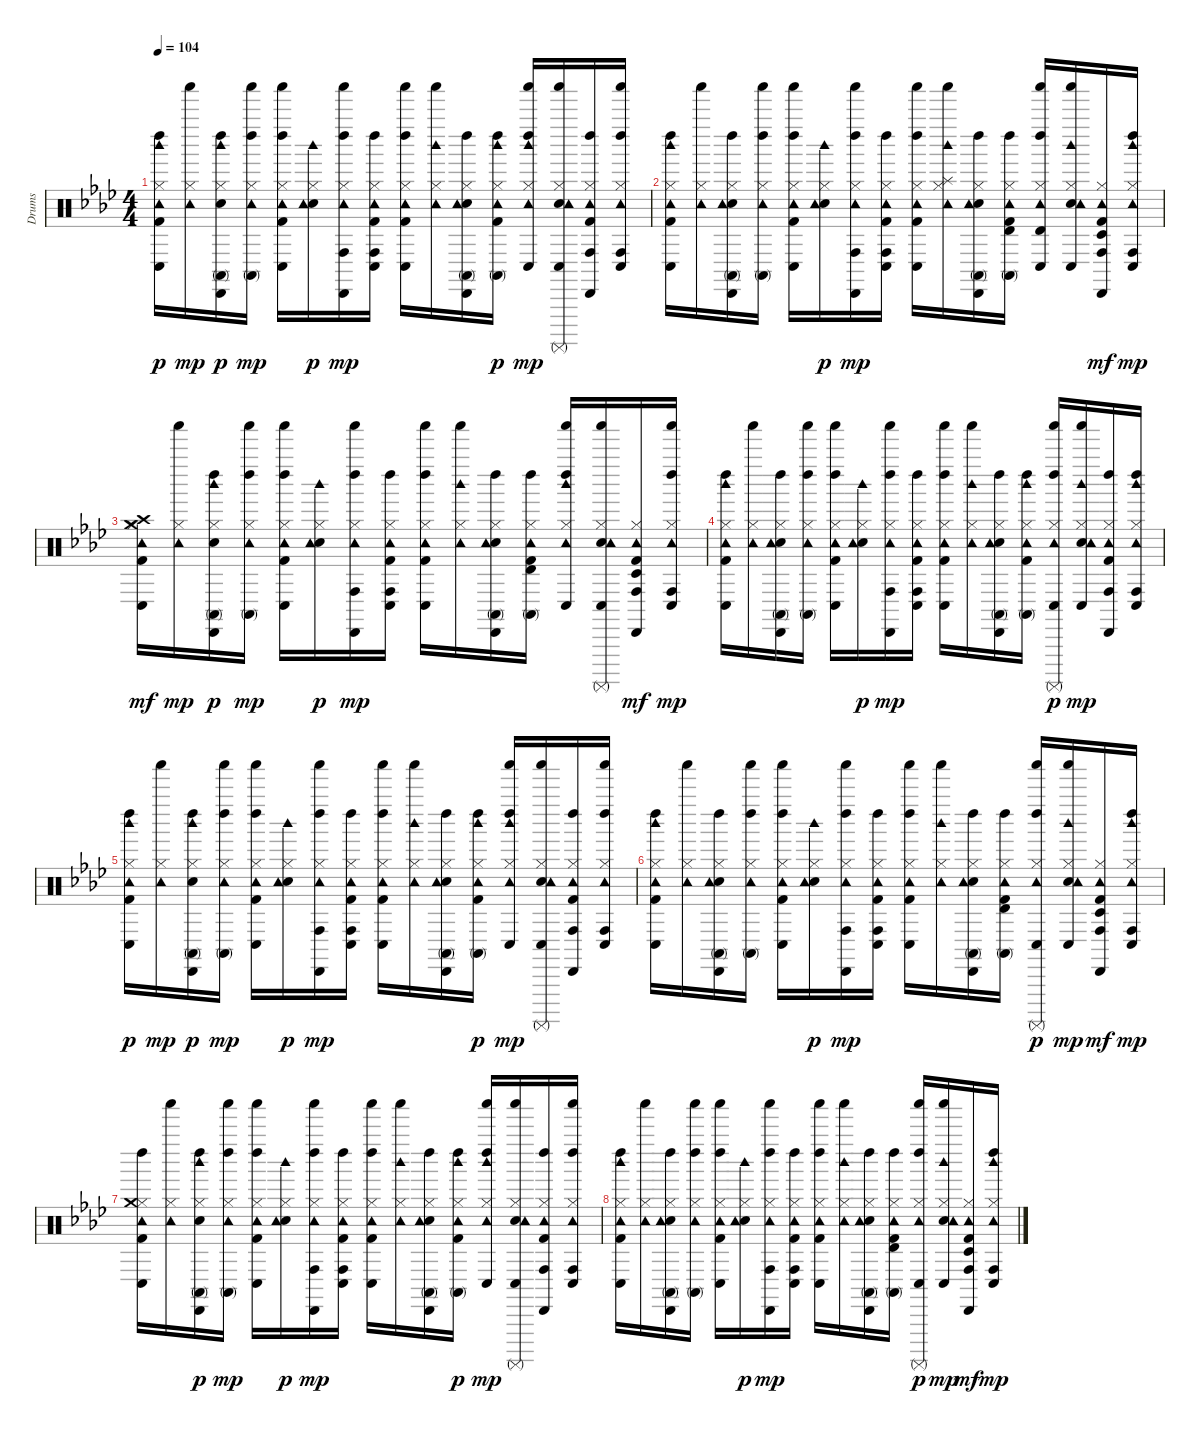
\track ("Drums" "Drums") {instrument percussion}
\staff {score}
\articulation defaults
\ts (4 4)
\tempo 104
\clef neutral
\ks ab
("Kick (hit) 2" "Hi-Hat (closed)" "Tambourine (hit)" "Conga low (hit)" "Left Maraca (hit)" "Woodblock high (hit)").16{dy p} ("Hi-Hat (closed)" "Tambourine (hit)" "Shaker (hit)").16{dy mp} ("Hand Clap (hit)" "Hi-Hat (closed)" "Conga high (mute)" "Cabasa (hit)" "Left Maraca (hit)" "Woodblock high (hit)").16{dy p} ("Hi-Hat (closed)" "Tambourine (hit)" "Conga high (mute)" "Left Maraca (hit)" "Shaker (hit)").16{dy mp} ("Kick (hit) 2" "Hi-Hat (closed)" "Tambourine (hit)" "Conga low (hit)" "Left Maraca (hit)" "Shaker (hit)").16 ("Hand Clap (hit)" "Hi-Hat (closed)" "Tambourine (hit)" "Woodblock high (hit)").16{dy p} ("Hi-Hat (closed)" "Tambourine (hit)" "Conga high (hit)" "Cabasa (hit)" "Left Maraca (hit)" "Shaker (hit)").16{dy mp} ("Kick (hit) 2" "Hi-Hat (closed)" "Tambourine (hit)" "Conga high (hit)" "Conga low (hit)" "Left Maraca (hit)").16 ("Kick (hit) 2" "Hi-Hat (closed)" "Tambourine (hit)" "Conga low (hit)" "Left Maraca (hit)" "Shaker (hit)").16 ("Hi-Hat (closed)" "Tambourine (hit)" "Woodblock high (hit)" "Shaker (hit)").16 ("Hand Clap (hit)" "Hi-Hat (closed)" "Tambourine (hit)" "Conga high (mute)" "Cabasa (hit)" "Left Maraca (hit)").16 ("Kick (hit) 2" "Hi-Hat (closed)" "Tambourine (hit)" "Conga high (mute)" "Left Maraca (hit)" "Woodblock high (hit)").16{dy p} ("Hi-Hat (closed)" "Tambourine (hit)" "Conga low (hit)" "Left Maraca (hit)" "Woodblock high (hit)" "Shaker (hit)").16{dy mp} ("Hand Clap (hit)" "Hi-Hat (closed)" "Tambourine (hit)" "Conga low (hit)" "Shaker (hit)" "Surdo (mute)").16 ("Kick (hit) 2" "Hi-Hat (closed)" "Tambourine (hit)" "Conga high (hit)" "Cabasa (hit)" "Left Maraca (hit)").16 ("Hi-Hat (closed)" "Tambourine (hit)" "Conga high (hit)" "Conga low (hit)" "Left Maraca (hit)" "Shaker (hit)").16 |
("Kick (hit) 2" "Hi-Hat (closed)" "Tambourine (hit)" "Conga low (hit)" "Left Maraca (hit)" "Woodblock high (hit)").16 ("Hi-Hat (closed)" "Tambourine (hit)" "Shaker (hit)").16 ("Hand Clap (hit)" "Hi-Hat (closed)" "Tambourine (hit)" "Conga high (mute)" "Cabasa (hit)" "Left Maraca (hit)").16 ("Hi-Hat (closed)" "Tambourine (hit)" "Conga high (mute)" "Left Maraca (hit)" "Shaker (hit)").16 ("Kick (hit) 2" "Hi-Hat (closed)" "Tambourine (hit)" "Conga low (hit)" "Left Maraca (hit)" "Shaker (hit)").16 ("Hand Clap (hit)" "Hi-Hat (closed)" "Tambourine (hit)" "Woodblock high (hit)").16{dy p} ("Hi-Hat (closed)" "Tambourine (hit)" "Conga high (hit)" "Cabasa (hit)" "Left Maraca (hit)" "Shaker (hit)").16{dy mp} ("Kick (hit) 2" "Hi-Hat (closed)" "Tambourine (hit)" "Conga high (hit)" "Conga low (hit)" "Left Maraca (hit)").16 ("Kick (hit) 2" "Hi-Hat (closed)" "Tambourine (hit)" "Conga low (hit)" "Left Maraca (hit)" "Shaker (hit)").16 ("Hi-Hat (closed)" "Tambourine (hit)" "Splash (hit)" "Woodblock high (hit)" "Shaker (hit)").16 ("Hand Clap (hit)" "Hi-Hat (closed)" "Tambourine (hit)" "Conga high (mute)" "Cabasa (hit)" "Left Maraca (hit)").16 ("Kick (hit) 2" "Hi-Hat (closed)" "Tambourine (hit)" "Conga high (mute)" "Timbale high (hit)" "Left Maraca (hit)").16 ("Hi-Hat (closed)" "Tambourine (hit)" "Conga low (hit)" "Timbale high (hit)" "Left Maraca (hit)" "Shaker (hit)").16 ("Hand Clap (hit)" "Hi-Hat (closed)" "Tambourine (hit)" "Conga low (hit)" "Woodblock high (hit)" "Shaker (hit)").16 ("Kick (hit) 2" "Hi-Hat (closed)" "Tambourine (hit)" "Conga high (hit)" "Timbale low (hit)" "Cabasa (hit)").16{dy mf} ("Hi-Hat (closed)" "Tambourine (hit)" "Conga high (hit)" "Conga low (hit)" "Left Maraca (hit)" "Woodblock high (hit)").16{dy mp} |
("Kick (hit) 2" "Hi-Hat (closed)" "Crash high (hit)" "Tambourine (hit)" "Crash medium (hit)" "Conga low (hit)").16{dy mf} ("Hi-Hat (closed)" "Tambourine (hit)" "Shaker (hit)").16{dy mp} ("Hand Clap (hit)" "Hi-Hat (closed)" "Conga high (mute)" "Cabasa (hit)" "Left Maraca (hit)" "Woodblock high (hit)").16{dy p} ("Hi-Hat (closed)" "Tambourine (hit)" "Conga high (mute)" "Left Maraca (hit)" "Shaker (hit)").16{dy mp} ("Kick (hit) 2" "Hi-Hat (closed)" "Tambourine (hit)" "Conga low (hit)" "Left Maraca (hit)" "Shaker (hit)").16 ("Hand Clap (hit)" "Hi-Hat (closed)" "Tambourine (hit)" "Woodblock high (hit)").16{dy p} ("Hi-Hat (closed)" "Tambourine (hit)" "Conga high (hit)" "Cabasa (hit)" "Left Maraca (hit)" "Shaker (hit)").16{dy mp} ("Kick (hit) 2" "Hi-Hat (closed)" "Tambourine (hit)" "Conga high (hit)" "Conga low (hit)" "Left Maraca (hit)").16 ("Kick (hit) 2" "Hi-Hat (closed)" "Tambourine (hit)" "Conga low (hit)" "Left Maraca (hit)" "Shaker (hit)").16 ("Hi-Hat (closed)" "Tambourine (hit)" "Woodblock high (hit)" "Shaker (hit)").16 ("Hand Clap (hit)" "Hi-Hat (closed)" "Tambourine (hit)" "Conga high (mute)" "Cabasa (hit)" "Left Maraca (hit)").16 ("Kick (hit) 2" "Hi-Hat (closed)" "Tambourine (hit)" "Conga high (mute)" "Timbale high (hit)" "Left Maraca (hit)").16 ("Hi-Hat (closed)" "Tambourine (hit)" "Conga low (hit)" "Left Maraca (hit)" "Woodblock high (hit)" "Shaker (hit)").16 ("Hand Clap (hit)" "Hi-Hat (closed)" "Tambourine (hit)" "Conga low (hit)" "Shaker (hit)" "Surdo (mute)").16 ("Kick (hit) 2" "Hi-Hat (closed)" "Tambourine (hit)" "Conga high (hit)" "Timbale low (hit)" "Cabasa (hit)").16{dy mf} ("Hi-Hat (closed)" "Tambourine (hit)" "Conga high (hit)" "Conga low (hit)" "Left Maraca (hit)" "Shaker (hit)").16{dy mp} |
("Kick (hit) 2" "Hi-Hat (closed)" "Tambourine (hit)" "Conga low (hit)" "Left Maraca (hit)" "Woodblock high (hit)").16 ("Hi-Hat (closed)" "Tambourine (hit)" "Shaker (hit)").16 ("Hand Clap (hit)" "Hi-Hat (closed)" "Tambourine (hit)" "Conga high (mute)" "Cabasa (hit)" "Left Maraca (hit)").16 ("Hi-Hat (closed)" "Tambourine (hit)" "Conga high (mute)" "Left Maraca (hit)" "Shaker (hit)").16 ("Kick (hit) 2" "Hi-Hat (closed)" "Tambourine (hit)" "Conga low (hit)" "Left Maraca (hit)" "Shaker (hit)").16 ("Hand Clap (hit)" "Hi-Hat (closed)" "Tambourine (hit)" "Woodblock high (hit)").16{dy p} ("Hi-Hat (closed)" "Tambourine (hit)" "Conga high (hit)" "Cabasa (hit)" "Left Maraca (hit)" "Shaker (hit)").16{dy mp} ("Kick (hit) 2" "Hi-Hat (closed)" "Tambourine (hit)" "Conga high (hit)" "Conga low (hit)" "Left Maraca (hit)").16 ("Kick (hit) 2" "Hi-Hat (closed)" "Tambourine (hit)" "Conga low (hit)" "Left Maraca (hit)" "Shaker (hit)").16 ("Hi-Hat (closed)" "Tambourine (hit)" "Woodblock high (hit)" "Shaker (hit)").16 ("Hand Clap (hit)" "Hi-Hat (closed)" "Tambourine (hit)" "Conga high (mute)" "Cabasa (hit)" "Left Maraca (hit)").16 ("Kick (hit) 2" "Hi-Hat (closed)" "Tambourine (hit)" "Conga high (mute)" "Left Maraca (hit)" "Woodblock high (hit)").16 ("Hi-Hat (closed)" "Tambourine (hit)" "Conga low (hit)" "Left Maraca (hit)" "Shaker (hit)" "Surdo (mute)").16{dy p} ("Hand Clap (hit)" "Hi-Hat (closed)" "Tambourine (hit)" "Conga low (hit)" "Woodblock high (hit)" "Shaker (hit)").16{dy mp} ("Kick (hit) 2" "Hi-Hat (closed)" "Tambourine (hit)" "Conga high (hit)" "Cabasa (hit)" "Left Maraca (hit)").16 ("Hi-Hat (closed)" "Tambourine (hit)" "Conga high (hit)" "Conga low (hit)" "Left Maraca (hit)" "Woodblock high (hit)").16 |
("Kick (hit) 2" "Hi-Hat (closed)" "Tambourine (hit)" "Conga low (hit)" "Left Maraca (hit)" "Woodblock high (hit)").16{dy p} ("Hi-Hat (closed)" "Tambourine (hit)" "Shaker (hit)").16{dy mp} ("Hand Clap (hit)" "Hi-Hat (closed)" "Conga high (mute)" "Cabasa (hit)" "Left Maraca (hit)" "Woodblock high (hit)").16{dy p} ("Hi-Hat (closed)" "Tambourine (hit)" "Conga high (mute)" "Left Maraca (hit)" "Shaker (hit)").16{dy mp} ("Kick (hit) 2" "Hi-Hat (closed)" "Tambourine (hit)" "Conga low (hit)" "Left Maraca (hit)" "Shaker (hit)").16 ("Hand Clap (hit)" "Hi-Hat (closed)" "Tambourine (hit)" "Woodblock high (hit)").16{dy p} ("Hi-Hat (closed)" "Tambourine (hit)" "Conga high (hit)" "Cabasa (hit)" "Left Maraca (hit)" "Shaker (hit)").16{dy mp} ("Kick (hit) 2" "Hi-Hat (closed)" "Tambourine (hit)" "Conga high (hit)" "Conga low (hit)" "Left Maraca (hit)").16 ("Kick (hit) 2" "Hi-Hat (closed)" "Tambourine (hit)" "Conga low (hit)" "Left Maraca (hit)" "Shaker (hit)").16 ("Hi-Hat (closed)" "Tambourine (hit)" "Woodblock high (hit)" "Shaker (hit)").16 ("Hand Clap (hit)" "Hi-Hat (closed)" "Tambourine (hit)" "Conga high (mute)" "Cabasa (hit)" "Left Maraca (hit)").16 ("Kick (hit) 2" "Hi-Hat (closed)" "Tambourine (hit)" "Conga high (mute)" "Left Maraca (hit)" "Woodblock high (hit)").16{dy p} ("Hi-Hat (closed)" "Tambourine (hit)" "Conga low (hit)" "Left Maraca (hit)" "Woodblock high (hit)" "Shaker (hit)").16{dy mp} ("Hand Clap (hit)" "Hi-Hat (closed)" "Tambourine (hit)" "Conga low (hit)" "Shaker (hit)" "Surdo (mute)").16 ("Kick (hit) 2" "Hi-Hat (closed)" "Tambourine (hit)" "Conga high (hit)" "Cabasa (hit)" "Left Maraca (hit)").16 ("Hi-Hat (closed)" "Tambourine (hit)" "Conga high (hit)" "Conga low (hit)" "Left Maraca (hit)" "Shaker (hit)").16 |
("Kick (hit) 2" "Hi-Hat (closed)" "Tambourine (hit)" "Conga low (hit)" "Left Maraca (hit)" "Woodblock high (hit)").16 ("Hi-Hat (closed)" "Tambourine (hit)" "Shaker (hit)").16 ("Hand Clap (hit)" "Hi-Hat (closed)" "Tambourine (hit)" "Conga high (mute)" "Cabasa (hit)" "Left Maraca (hit)").16 ("Hi-Hat (closed)" "Tambourine (hit)" "Conga high (mute)" "Left Maraca (hit)" "Shaker (hit)").16 ("Kick (hit) 2" "Hi-Hat (closed)" "Tambourine (hit)" "Conga low (hit)" "Left Maraca (hit)" "Shaker (hit)").16 ("Hand Clap (hit)" "Hi-Hat (closed)" "Tambourine (hit)" "Woodblock high (hit)").16{dy p} ("Hi-Hat (closed)" "Tambourine (hit)" "Conga high (hit)" "Cabasa (hit)" "Left Maraca (hit)" "Shaker (hit)").16{dy mp} ("Kick (hit) 2" "Hi-Hat (closed)" "Tambourine (hit)" "Conga high (hit)" "Conga low (hit)" "Left Maraca (hit)").16 ("Kick (hit) 2" "Hi-Hat (closed)" "Tambourine (hit)" "Conga low (hit)" "Left Maraca (hit)" "Shaker (hit)").16 ("Hi-Hat (closed)" "Tambourine (hit)" "Woodblock high (hit)" "Shaker (hit)").16 ("Hand Clap (hit)" "Hi-Hat (closed)" "Tambourine (hit)" "Conga high (mute)" "Cabasa (hit)" "Left Maraca (hit)").16 ("Kick (hit) 2" "Hi-Hat (closed)" "Tambourine (hit)" "Conga high (mute)" "Timbale high (hit)" "Left Maraca (hit)").16 ("Hi-Hat (closed)" "Tambourine (hit)" "Conga low (hit)" "Left Maraca (hit)" "Shaker (hit)" "Surdo (mute)").16{dy p} ("Hand Clap (hit)" "Hi-Hat (closed)" "Tambourine (hit)" "Conga low (hit)" "Woodblock high (hit)" "Shaker (hit)").16{dy mp} ("Kick (hit) 2" "Hi-Hat (closed)" "Tambourine (hit)" "Conga high (hit)" "Timbale low (hit)" "Cabasa (hit)").16{dy mf} ("Hi-Hat (closed)" "Tambourine (hit)" "Conga high (hit)" "Conga low (hit)" "Left Maraca (hit)" "Woodblock high (hit)").16{dy mp} |
("Kick (hit) 2" "Hi-Hat (closed)" "Tambourine (hit)" "Crash medium (hit)" "Conga low (hit)" "Left Maraca (hit)").16 ("Hi-Hat (closed)" "Tambourine (hit)" "Shaker (hit)").16 ("Hand Clap (hit)" "Hi-Hat (closed)" "Conga high (mute)" "Cabasa (hit)" "Left Maraca (hit)" "Woodblock high (hit)").16{dy p} ("Hi-Hat (closed)" "Tambourine (hit)" "Conga high (mute)" "Left Maraca (hit)" "Shaker (hit)").16{dy mp} ("Kick (hit) 2" "Hi-Hat (closed)" "Tambourine (hit)" "Conga low (hit)" "Left Maraca (hit)" "Shaker (hit)").16 ("Hand Clap (hit)" "Hi-Hat (closed)" "Tambourine (hit)" "Woodblock high (hit)").16{dy p} ("Hi-Hat (closed)" "Tambourine (hit)" "Conga high (hit)" "Cabasa (hit)" "Left Maraca (hit)" "Shaker (hit)").16{dy mp} ("Kick (hit) 2" "Hi-Hat (closed)" "Tambourine (hit)" "Conga high (hit)" "Conga low (hit)" "Left Maraca (hit)").16 ("Kick (hit) 2" "Hi-Hat (closed)" "Tambourine (hit)" "Conga low (hit)" "Left Maraca (hit)" "Shaker (hit)").16 ("Hi-Hat (closed)" "Tambourine (hit)" "Woodblock high (hit)" "Shaker (hit)").16 ("Hand Clap (hit)" "Hi-Hat (closed)" "Tambourine (hit)" "Conga high (mute)" "Cabasa (hit)" "Left Maraca (hit)").16 ("Kick (hit) 2" "Hi-Hat (closed)" "Tambourine (hit)" "Conga high (mute)" "Left Maraca (hit)" "Woodblock high (hit)").16{dy p} ("Hi-Hat (closed)" "Tambourine (hit)" "Conga low (hit)" "Left Maraca (hit)" "Woodblock high (hit)" "Shaker (hit)").16{dy mp} ("Hand Clap (hit)" "Hi-Hat (closed)" "Tambourine (hit)" "Conga low (hit)" "Shaker (hit)" "Surdo (mute)").16 ("Kick (hit) 2" "Hi-Hat (closed)" "Tambourine (hit)" "Conga high (hit)" "Cabasa (hit)" "Left Maraca (hit)").16 ("Hi-Hat (closed)" "Tambourine (hit)" "Conga high (hit)" "Conga low (hit)" "Left Maraca (hit)" "Shaker (hit)").16 |
("Kick (hit) 2" "Hi-Hat (closed)" "Tambourine (hit)" "Conga low (hit)" "Left Maraca (hit)" "Woodblock high (hit)").16 ("Hi-Hat (closed)" "Tambourine (hit)" "Shaker (hit)").16 ("Hand Clap (hit)" "Hi-Hat (closed)" "Tambourine (hit)" "Conga high (mute)" "Cabasa (hit)" "Left Maraca (hit)").16 ("Hi-Hat (closed)" "Tambourine (hit)" "Conga high (mute)" "Left Maraca (hit)" "Shaker (hit)").16 ("Kick (hit) 2" "Hi-Hat (closed)" "Tambourine (hit)" "Conga low (hit)" "Left Maraca (hit)" "Shaker (hit)").16 ("Hand Clap (hit)" "Hi-Hat (closed)" "Tambourine (hit)" "Woodblock high (hit)").16{dy p} ("Hi-Hat (closed)" "Tambourine (hit)" "Conga high (hit)" "Cabasa (hit)" "Left Maraca (hit)" "Shaker (hit)").16{dy mp} ("Kick (hit) 2" "Hi-Hat (closed)" "Tambourine (hit)" "Conga high (hit)" "Conga low (hit)" "Left Maraca (hit)").16 ("Kick (hit) 2" "Hi-Hat (closed)" "Tambourine (hit)" "Conga low (hit)" "Left Maraca (hit)" "Shaker (hit)").16 ("Hi-Hat (closed)" "Tambourine (hit)" "Woodblock high (hit)" "Shaker (hit)").16 ("Hand Clap (hit)" "Hi-Hat (closed)" "Tambourine (hit)" "Conga high (mute)" "Cabasa (hit)" "Left Maraca (hit)").16 ("Kick (hit) 2" "Hi-Hat (closed)" "Tambourine (hit)" "Conga high (mute)" "Timbale high (hit)" "Left Maraca (hit)").16 ("Hi-Hat (closed)" "Tambourine (hit)" "Conga low (hit)" "Left Maraca (hit)" "Shaker (hit)" "Surdo (mute)").16{dy p} ("Hand Clap (hit)" "Hi-Hat (closed)" "Tambourine (hit)" "Conga low (hit)" "Woodblock high (hit)" "Shaker (hit)").16{dy mp} ("Kick (hit) 2" "Hi-Hat (closed)" "Tambourine (hit)" "Conga high (hit)" "Timbale low (hit)" "Cabasa (hit)").16{dy mf} ("Hi-Hat (closed)" "Tambourine (hit)" "Conga high (hit)" "Conga low (hit)" "Left Maraca (hit)" "Woodblock high (hit)").16{dy mp}
